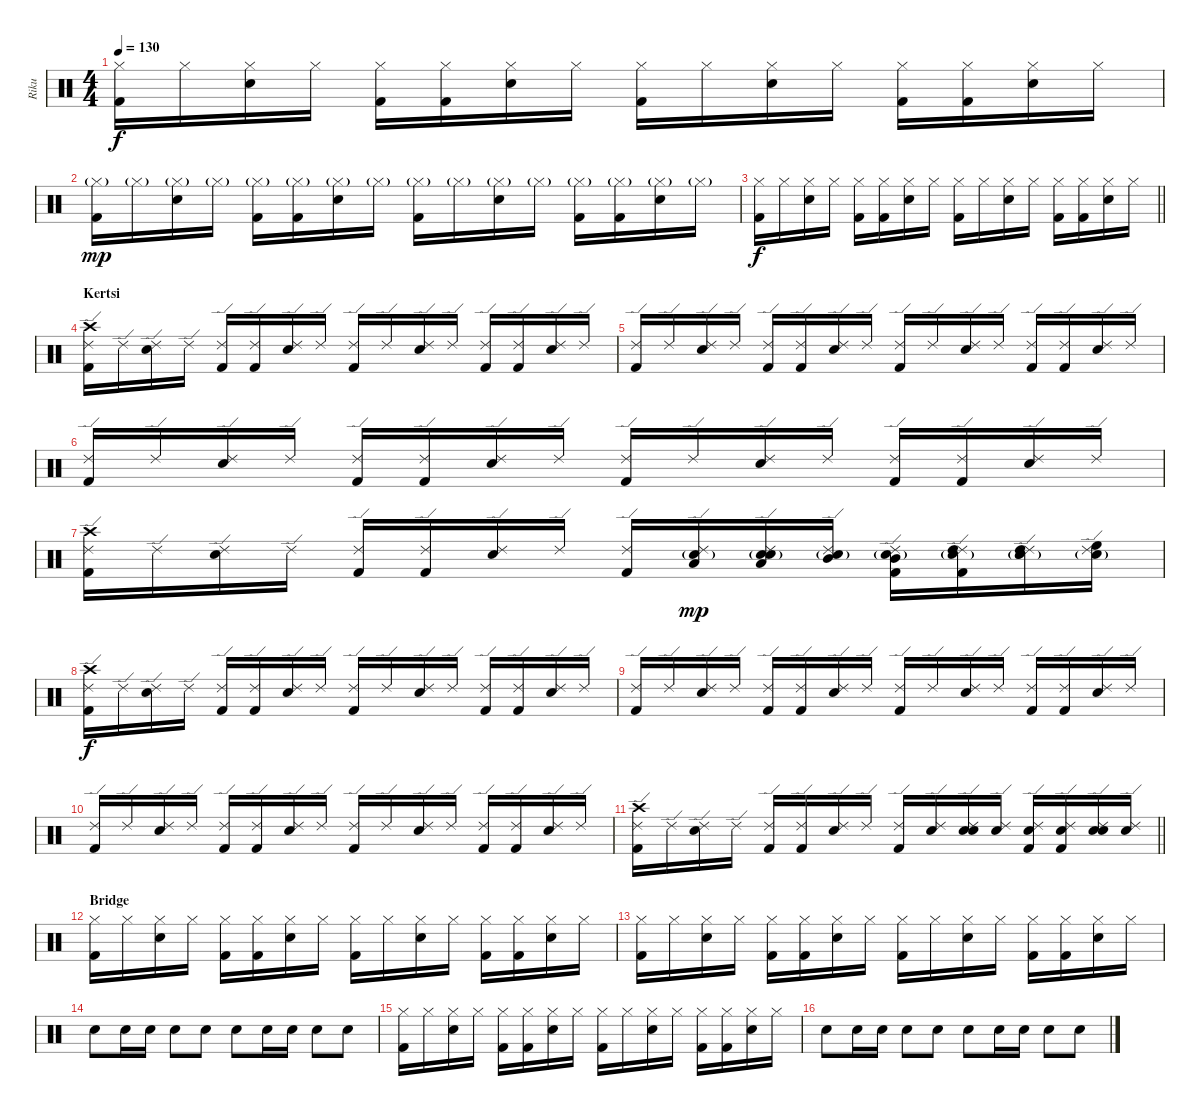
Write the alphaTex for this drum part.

\track ("Riku" "Riku") {instrument percussion}
\staff {score}
\articulation defaults
\ts (4 4)
\tempo 130
\clef neutral
\ks c
("Hi-Hat (closed)" "Kick (hit) 2").16{dy f} "Hi-Hat (closed)".16 ("Hi-Hat (closed)" "Snare (hit) 2").16 "Hi-Hat (closed)".16 ("Hi-Hat (closed)" "Kick (hit) 2").16 ("Hi-Hat (closed)" "Kick (hit) 2").16 ("Hi-Hat (closed)" "Snare (hit) 2").16 "Hi-Hat (closed)".16 ("Hi-Hat (closed)" "Kick (hit) 2").16 "Hi-Hat (closed)".16 ("Hi-Hat (closed)" "Snare (hit) 2").16 "Hi-Hat (closed)".16 ("Hi-Hat (closed)" "Kick (hit) 2").16 ("Hi-Hat (closed)" "Kick (hit) 2").16 ("Hi-Hat (closed)" "Snare (hit) 2").16 "Hi-Hat (closed)".16 |
("Hi-Hat (closed)"{g} "Kick (hit) 2").16{dy mp} "Hi-Hat (closed)"{g}.16 ("Hi-Hat (closed)"{g} "Snare (hit) 2").16 "Hi-Hat (closed)"{g}.16 ("Hi-Hat (closed)"{g} "Kick (hit) 2").16 ("Hi-Hat (closed)"{g} "Kick (hit) 2").16 ("Hi-Hat (closed)"{g} "Snare (hit) 2").16 "Hi-Hat (closed)"{g}.16 ("Hi-Hat (closed)"{g} "Kick (hit) 2").16 "Hi-Hat (closed)"{g}.16 ("Hi-Hat (closed)"{g} "Snare (hit) 2").16 "Hi-Hat (closed)"{g}.16 ("Hi-Hat (closed)"{g} "Kick (hit) 2").16 ("Hi-Hat (closed)"{g} "Kick (hit) 2").16 ("Hi-Hat (closed)"{g} "Snare (hit) 2").16 "Hi-Hat (closed)"{g}.16 |
\barLineRight lightlight
("Hi-Hat (closed)" "Kick (hit) 2").16{dy f} "Hi-Hat (closed)".16 ("Hi-Hat (closed)" "Snare (hit) 2").16 "Hi-Hat (closed)".16 ("Hi-Hat (closed)" "Kick (hit) 2").16 ("Hi-Hat (closed)" "Kick (hit) 2").16 ("Hi-Hat (closed)" "Snare (hit) 2").16 "Hi-Hat (closed)".16 ("Hi-Hat (closed)" "Kick (hit) 2").16 "Hi-Hat (closed)".16 ("Hi-Hat (closed)" "Snare (hit) 2").16 "Hi-Hat (closed)".16 ("Hi-Hat (closed)" "Kick (hit) 2").16 ("Hi-Hat (closed)" "Kick (hit) 2").16 ("Hi-Hat (closed)" "Snare (hit) 2").16 "Hi-Hat (closed)".16 |
\section ("" "Kertsi")
("Ride (edge) 2" "Kick (hit) 2" "Crash high (hit)").16 "Ride (edge) 2".16 ("Ride (edge) 2" "Snare (hit) 2").16 "Ride (edge) 2".16 ("Ride (edge) 2" "Kick (hit) 2").16 ("Ride (edge) 2" "Kick (hit) 2").16 ("Ride (edge) 2" "Snare (hit) 2").16 "Ride (edge) 2".16 ("Ride (edge) 2" "Kick (hit) 2").16 "Ride (edge) 2".16 ("Ride (edge) 2" "Snare (hit) 2").16 "Ride (edge) 2".16 ("Ride (edge) 2" "Kick (hit) 2").16 ("Ride (edge) 2" "Kick (hit) 2").16 ("Ride (edge) 2" "Snare (hit) 2").16 "Ride (edge) 2".16 |
("Ride (edge) 2" "Kick (hit) 2").16 "Ride (edge) 2".16 ("Ride (edge) 2" "Snare (hit) 2").16 "Ride (edge) 2".16 ("Ride (edge) 2" "Kick (hit) 2").16 ("Ride (edge) 2" "Kick (hit) 2").16 ("Ride (edge) 2" "Snare (hit) 2").16 "Ride (edge) 2".16 ("Ride (edge) 2" "Kick (hit) 2").16 "Ride (edge) 2".16 ("Ride (edge) 2" "Snare (hit) 2").16 "Ride (edge) 2".16 ("Ride (edge) 2" "Kick (hit) 2").16 ("Ride (edge) 2" "Kick (hit) 2").16 ("Ride (edge) 2" "Snare (hit) 2").16 "Ride (edge) 2".16 |
("Ride (edge) 2" "Kick (hit) 2").16 "Ride (edge) 2".16 ("Ride (edge) 2" "Snare (hit) 2").16 "Ride (edge) 2".16 ("Ride (edge) 2" "Kick (hit) 2").16 ("Ride (edge) 2" "Kick (hit) 2").16 ("Ride (edge) 2" "Snare (hit) 2").16 "Ride (edge) 2".16 ("Ride (edge) 2" "Kick (hit) 2").16 "Ride (edge) 2".16 ("Ride (edge) 2" "Snare (hit) 2").16 "Ride (edge) 2".16 ("Ride (edge) 2" "Kick (hit) 2").16 ("Ride (edge) 2" "Kick (hit) 2").16 ("Ride (edge) 2" "Snare (hit) 2").16 "Ride (edge) 2".16 |
("Ride (edge) 2" "Kick (hit) 2" "Crash high (hit)").16 "Ride (edge) 2".16 ("Ride (edge) 2" "Snare (hit) 2").16 "Ride (edge) 2".16 ("Ride (edge) 2" "Kick (hit) 2").16 ("Ride (edge) 2" "Kick (hit) 2").16 ("Ride (edge) 2" "Snare (hit) 2").16 "Ride (edge) 2".16 ("Ride (edge) 2" "Kick (hit) 2").16 ("Ride (edge) 2" "Low Tom (hit)" "Snare (hit) 2"{g}).16{dy mp} ("Ride (edge) 2" "Snare (hit) 2" "Low Tom (hit)" "Snare (hit) 2"{g}).16 ("Ride (edge) 2" "Mid Tom (hit)" "Snare (hit) 2"{g}).16 ("Ride (edge) 2" "Kick (hit) 2" "Mid Tom (hit)" "Snare (hit) 2"{g}).16 ("Ride (edge) 2" "Kick (hit) 2" "High Tom (hit)" "Snare (hit) 2"{g}).16 ("Ride (edge) 2" "Snare (hit) 2" "High Tom (hit)" "Snare (hit) 2"{g}).16 ("Ride (edge) 2" "High Floor Tom (hit)" "Snare (hit) 2"{g}).16 |
("Ride (edge) 2" "Kick (hit) 2" "Crash high (hit)").16{dy f} "Ride (edge) 2".16 ("Ride (edge) 2" "Snare (hit) 2").16 "Ride (edge) 2".16 ("Ride (edge) 2" "Kick (hit) 2").16 ("Ride (edge) 2" "Kick (hit) 2").16 ("Ride (edge) 2" "Snare (hit) 2").16 "Ride (edge) 2".16 ("Ride (edge) 2" "Kick (hit) 2").16 "Ride (edge) 2".16 ("Ride (edge) 2" "Snare (hit) 2").16 "Ride (edge) 2".16 ("Ride (edge) 2" "Kick (hit) 2").16 ("Ride (edge) 2" "Kick (hit) 2").16 ("Ride (edge) 2" "Snare (hit) 2").16 "Ride (edge) 2".16 |
("Ride (edge) 2" "Kick (hit) 2").16 "Ride (edge) 2".16 ("Ride (edge) 2" "Snare (hit) 2").16 "Ride (edge) 2".16 ("Ride (edge) 2" "Kick (hit) 2").16 ("Ride (edge) 2" "Kick (hit) 2").16 ("Ride (edge) 2" "Snare (hit) 2").16 "Ride (edge) 2".16 ("Ride (edge) 2" "Kick (hit) 2").16 "Ride (edge) 2".16 ("Ride (edge) 2" "Snare (hit) 2").16 "Ride (edge) 2".16 ("Ride (edge) 2" "Kick (hit) 2").16 ("Ride (edge) 2" "Kick (hit) 2").16 ("Ride (edge) 2" "Snare (hit) 2").16 "Ride (edge) 2".16 |
("Ride (edge) 2" "Kick (hit) 2").16 "Ride (edge) 2".16 ("Ride (edge) 2" "Snare (hit) 2").16 "Ride (edge) 2".16 ("Ride (edge) 2" "Kick (hit) 2").16 ("Ride (edge) 2" "Kick (hit) 2").16 ("Ride (edge) 2" "Snare (hit) 2").16 "Ride (edge) 2".16 ("Ride (edge) 2" "Kick (hit) 2").16 "Ride (edge) 2".16 ("Ride (edge) 2" "Snare (hit) 2").16 "Ride (edge) 2".16 ("Ride (edge) 2" "Kick (hit) 2").16 ("Ride (edge) 2" "Kick (hit) 2").16 ("Ride (edge) 2" "Snare (hit) 2").16 "Ride (edge) 2".16 |
\barLineRight lightlight
("Ride (edge) 2" "Kick (hit) 2" "Crash high (hit)").16 "Ride (edge) 2".16 ("Ride (edge) 2" "Snare (hit) 2").16 "Ride (edge) 2".16 ("Ride (edge) 2" "Kick (hit) 2").16 ("Ride (edge) 2" "Kick (hit) 2").16 ("Ride (edge) 2" "Snare (hit) 2").16 "Ride (edge) 2".16 ("Ride (edge) 2" "Kick (hit) 2").16 ("Ride (edge) 2" "Snare (hit) 2").16 ("Ride (edge) 2" "Snare (hit) 2" "Snare (hit) 2").16 ("Ride (edge) 2" "Snare (hit) 2").16 ("Ride (edge) 2" "Kick (hit) 2" "Snare (hit) 2").16 ("Ride (edge) 2" "Kick (hit) 2" "Snare (hit) 2").16 ("Ride (edge) 2" "Snare (hit) 2" "Snare (hit) 2").16 ("Ride (edge) 2" "Snare (hit) 2").16 |
\section ("" "Bridge")
("Hi-Hat (closed)" "Kick (hit) 2").16 "Hi-Hat (closed)".16 ("Hi-Hat (closed)" "Snare (hit) 2").16 "Hi-Hat (closed)".16 ("Hi-Hat (closed)" "Kick (hit) 2").16 ("Hi-Hat (closed)" "Kick (hit) 2").16 ("Hi-Hat (closed)" "Snare (hit) 2").16 "Hi-Hat (closed)".16 ("Hi-Hat (closed)" "Kick (hit) 2").16 "Hi-Hat (closed)".16 ("Hi-Hat (closed)" "Snare (hit) 2").16 "Hi-Hat (closed)".16 ("Hi-Hat (closed)" "Kick (hit) 2").16 ("Hi-Hat (closed)" "Kick (hit) 2").16 ("Hi-Hat (closed)" "Snare (hit) 2").16 "Hi-Hat (closed)".16 |
("Hi-Hat (closed)" "Kick (hit) 2").16 "Hi-Hat (closed)".16 ("Hi-Hat (closed)" "Snare (hit) 2").16 "Hi-Hat (closed)".16 ("Hi-Hat (closed)" "Kick (hit) 2").16 ("Hi-Hat (closed)" "Kick (hit) 2").16 ("Hi-Hat (closed)" "Snare (hit) 2").16 "Hi-Hat (closed)".16 ("Hi-Hat (closed)" "Kick (hit) 2").16 "Hi-Hat (closed)".16 ("Hi-Hat (closed)" "Snare (hit) 2").16 "Hi-Hat (closed)".16 ("Hi-Hat (closed)" "Kick (hit) 2").16 ("Hi-Hat (closed)" "Kick (hit) 2").16 ("Hi-Hat (closed)" "Snare (hit) 2").16 "Hi-Hat (closed)".16 |
"Snare (hit) 2".8 "Snare (hit) 2".16 "Snare (hit) 2".16 "Snare (hit) 2".8 "Snare (hit) 2".8 "Snare (hit) 2".8 "Snare (hit) 2".16 "Snare (hit) 2".16 "Snare (hit) 2".8 "Snare (hit) 2".8 |
("Hi-Hat (closed)" "Kick (hit) 2").16 "Hi-Hat (closed)".16 ("Hi-Hat (closed)" "Snare (hit) 2").16 "Hi-Hat (closed)".16 ("Hi-Hat (closed)" "Kick (hit) 2").16 ("Hi-Hat (closed)" "Kick (hit) 2").16 ("Hi-Hat (closed)" "Snare (hit) 2").16 "Hi-Hat (closed)".16 ("Hi-Hat (closed)" "Kick (hit) 2").16 "Hi-Hat (closed)".16 ("Hi-Hat (closed)" "Snare (hit) 2").16 "Hi-Hat (closed)".16 ("Hi-Hat (closed)" "Kick (hit) 2").16 ("Hi-Hat (closed)" "Kick (hit) 2").16 ("Hi-Hat (closed)" "Snare (hit) 2").16 "Hi-Hat (closed)".16 |
"Snare (hit) 2".8 "Snare (hit) 2".16 "Snare (hit) 2".16 "Snare (hit) 2".8 "Snare (hit) 2".8 "Snare (hit) 2".8 "Snare (hit) 2".16 "Snare (hit) 2".16 "Snare (hit) 2".8 "Snare (hit) 2".8
